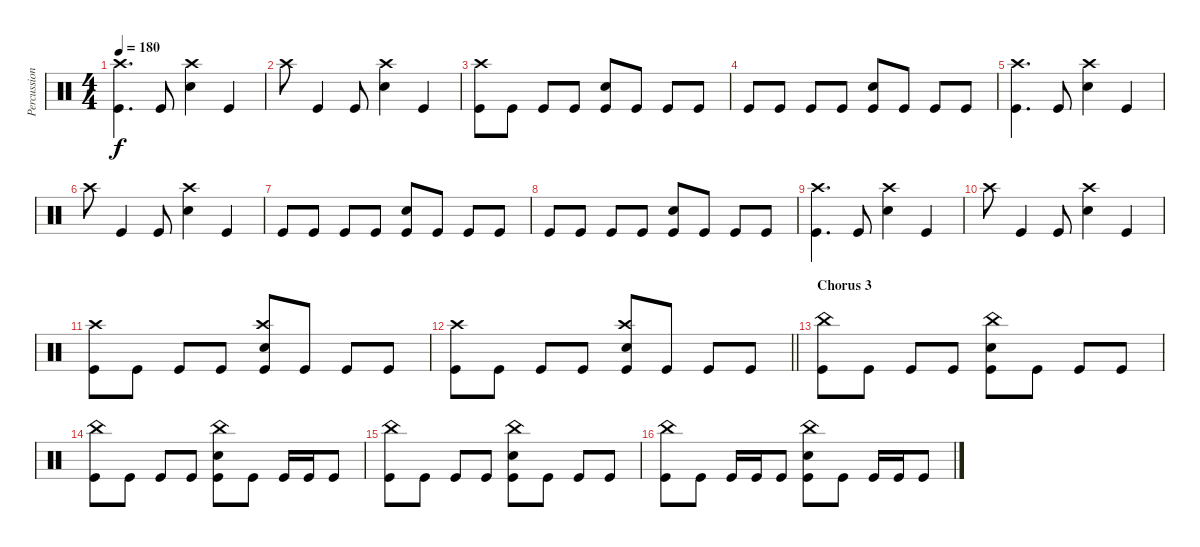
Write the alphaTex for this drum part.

\track ("Percussion" "Percussion") {instrument percussion}
\staff {score}
\articulation defaults
\ts (4 4)
\tempo 180
\clef neutral
\ks c
("Kick (hit)" "Crash high (hit)").4{d dy f} "Kick (hit)".8 ("Snare (hit) 2" "Crash high (hit)").4 "Kick (hit)".4 |
"Crash high (hit)".8 "Kick (hit)".4 "Kick (hit)".8 ("Snare (hit) 2" "Crash high (hit)").4 "Kick (hit)".4 |
("Crash high (hit)" "Kick (hit)").8 "Kick (hit)".8 "Kick (hit)".8 "Kick (hit)".8 ("Snare (hit) 2" "Kick (hit)").8 "Kick (hit)".8 "Kick (hit)".8 "Kick (hit)".8 |
"Kick (hit)".8 "Kick (hit)".8 "Kick (hit)".8 "Kick (hit)".8 ("Snare (hit) 2" "Kick (hit)").8 "Kick (hit)".8 "Kick (hit)".8 "Kick (hit)".8 |
("Kick (hit)" "Crash high (hit)").4{d} "Kick (hit)".8 ("Snare (hit) 2" "Crash high (hit)").4 "Kick (hit)".4 |
"Crash high (hit)".8 "Kick (hit)".4 "Kick (hit)".8 ("Snare (hit) 2" "Crash high (hit)").4 "Kick (hit)".4 |
"Kick (hit)".8 "Kick (hit)".8 "Kick (hit)".8 "Kick (hit)".8 ("Snare (hit) 2" "Kick (hit)").8 "Kick (hit)".8 "Kick (hit)".8 "Kick (hit)".8 |
"Kick (hit)".8 "Kick (hit)".8 "Kick (hit)".8 "Kick (hit)".8 ("Snare (hit) 2" "Kick (hit)").8 "Kick (hit)".8 "Kick (hit)".8 "Kick (hit)".8 |
("Kick (hit)" "Crash high (hit)").4{d} "Kick (hit)".8 ("Snare (hit) 2" "Crash high (hit)").4 "Kick (hit)".4 |
"Crash high (hit)".8 "Kick (hit)".4 "Kick (hit)".8 ("Snare (hit) 2" "Crash high (hit)").4 "Kick (hit)".4 |
("Crash high (hit)" "Kick (hit)").8 "Kick (hit)".8 "Kick (hit)".8 "Kick (hit)".8 ("Crash high (hit)" "Snare (hit) 2" "Kick (hit)").8 "Kick (hit)".8 "Kick (hit)".8 "Kick (hit)".8 |
\barLineRight lightlight
("Crash high (hit)" "Kick (hit)").8 "Kick (hit)".8 "Kick (hit)".8 "Kick (hit)".8 ("Crash high (hit)" "Snare (hit) 2" "Kick (hit)").8 "Kick (hit)".8 "Kick (hit)".8 "Kick (hit)".8 |
\section ("" "Chorus 3")
("China (hit)" "Kick (hit)").8 "Kick (hit)".8 "Kick (hit)".8 "Kick (hit)".8 ("China (hit)" "Kick (hit)" "Snare (hit) 2").8 "Kick (hit)".8 "Kick (hit)".8 "Kick (hit)".8 |
("China (hit)" "Kick (hit)").8 "Kick (hit)".8 "Kick (hit)".8 "Kick (hit)".8 ("China (hit)" "Kick (hit)" "Snare (hit) 2").8 "Kick (hit)".8 "Kick (hit)".16 "Kick (hit)".16 "Kick (hit)".8 |
("China (hit)" "Kick (hit)").8 "Kick (hit)".8 "Kick (hit)".8 "Kick (hit)".8 ("China (hit)" "Kick (hit)" "Snare (hit) 2").8 "Kick (hit)".8 "Kick (hit)".8 "Kick (hit)".8 |
("China (hit)" "Kick (hit)").8 "Kick (hit)".8 "Kick (hit)".16 "Kick (hit)".16 "Kick (hit)".8 ("China (hit)" "Kick (hit)" "Snare (hit) 2").8 "Kick (hit)".8 "Kick (hit)".16 "Kick (hit)".16 "Kick (hit)".8
